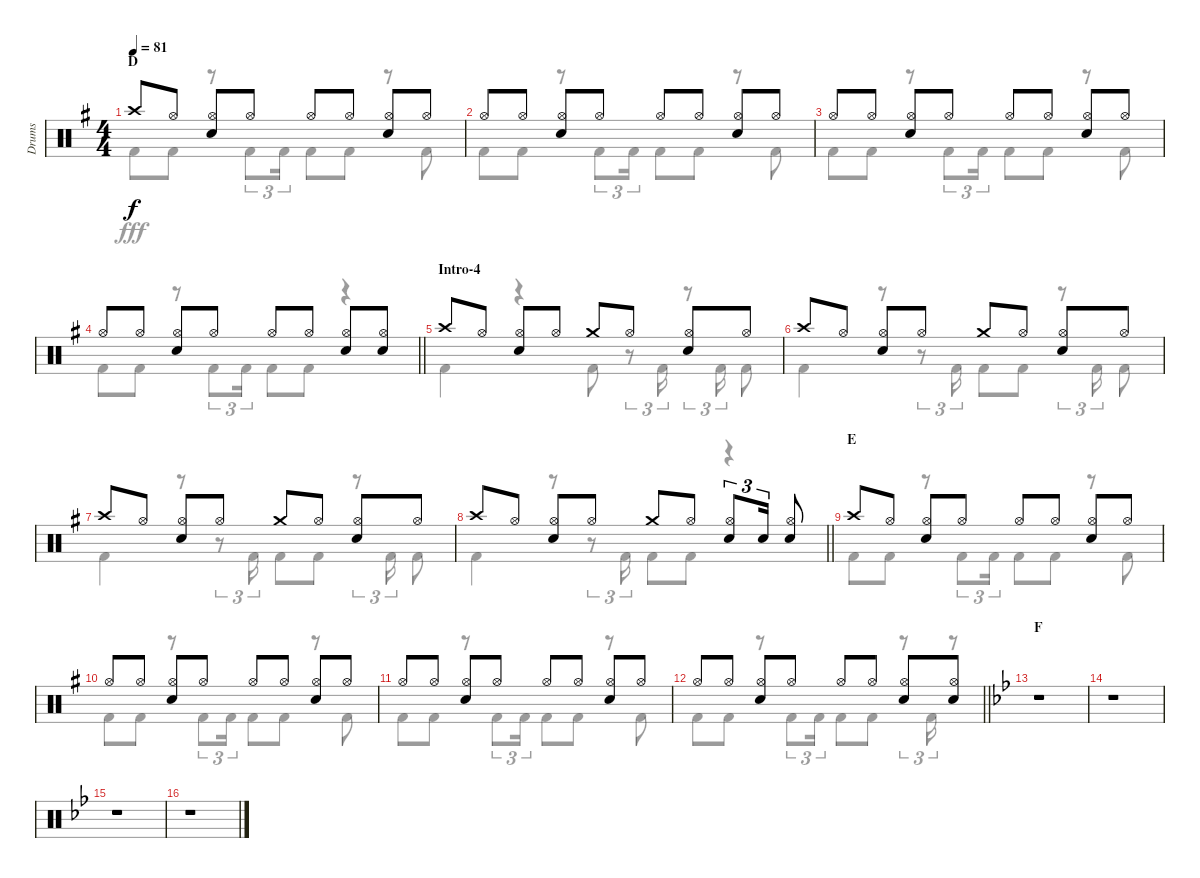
\track ("Drums" "Drums") {instrument percussion}
\staff {score}
\articulation defaults
\voice
\ts (4 4)
\section ("" "D")
\tempo 81
\clef neutral
\ks g "Crash high (hit)".8{dy f} "Hi-Hat (open)".8
("Hi-Hat (open)" "Snare (hit) 2").8 "Hi-Hat (open)".8 "Hi-Hat (open)".8 "Hi-Hat (open)".8 ("Hi-Hat (open)" "Snare (hit) 2").8 "Hi-Hat (open)".8 |
"Hi-Hat (open)".8 "Hi-Hat (open)".8 ("Hi-Hat (open)" "Snare (hit) 2").8 "Hi-Hat (open)".8 "Hi-Hat (open)".8 "Hi-Hat (open)".8 ("Hi-Hat (open)" "Snare (hit) 2").8 "Hi-Hat (open)".8 |
"Hi-Hat (open)".8 "Hi-Hat (open)".8 ("Hi-Hat (open)" "Snare (hit) 2").8 "Hi-Hat (open)".8 "Hi-Hat (open)".8 "Hi-Hat (open)".8 ("Hi-Hat (open)" "Snare (hit) 2").8 "Hi-Hat (open)".8 |
\barLineRight lightlight "Hi-Hat (open)".8 "Hi-Hat (open)".8
("Hi-Hat (open)" "Snare (hit) 2").8 "Hi-Hat (open)".8 "Hi-Hat (open)".8 "Hi-Hat (open)".8 ("Hi-Hat (open)" "Snare (hit) 2").8 ("Hi-Hat (open)" "Snare (hit) 2").8 |
\section ("" "Intro-4")
"Crash high (hit)".8 "Hi-Hat (open)".8 ("Hi-Hat (open)" "Snare (hit) 2").8 "Hi-Hat (open)".8 "Crash medium (hit)".8 "Hi-Hat (open)".8 ("Hi-Hat (open)" "Snare (hit) 2").8 "Hi-Hat (open)".8 |
"Crash high (hit)".8 "Hi-Hat (open)".8 ("Hi-Hat (open)" "Snare (hit) 2").8 "Hi-Hat (open)".8 "Crash medium (hit)".8 "Hi-Hat (open)".8 ("Hi-Hat (open)" "Snare (hit) 2").8 "Hi-Hat (open)".8 |
"Crash high (hit)".8 "Hi-Hat (open)".8 ("Hi-Hat (open)" "Snare (hit) 2").8 "Hi-Hat (open)".8 "Crash medium (hit)".8 "Hi-Hat (open)".8 ("Hi-Hat (open)" "Snare (hit) 2").8 "Hi-Hat (open)".8 |
\barLineRight lightlight "Crash high (hit)".8 "Hi-Hat (open)".8
("Hi-Hat (open)" "Snare (hit) 2").8 "Hi-Hat (open)".8 "Crash medium (hit)".8 "Hi-Hat (open)".8 ("Hi-Hat (open)" "Snare (hit) 2").8{tu (3 2)} "Snare (hit) 2".16{tu (3 2)} ("Hi-Hat (open)" "Snare (hit) 2").8 |
\section ("" "E")
"Crash high (hit)".8 "Hi-Hat (open)".8 ("Hi-Hat (open)" "Snare (hit) 2").8 "Hi-Hat (open)".8 "Hi-Hat (open)".8 "Hi-Hat (open)".8 ("Hi-Hat (open)" "Snare (hit) 2").8 "Hi-Hat (open)".8 |
"Hi-Hat (open)".8 "Hi-Hat (open)".8 ("Hi-Hat (open)" "Snare (hit) 2").8 "Hi-Hat (open)".8 "Hi-Hat (open)".8 "Hi-Hat (open)".8 ("Hi-Hat (open)" "Snare (hit) 2").8 "Hi-Hat (open)".8 |
"Hi-Hat (open)".8 "Hi-Hat (open)".8 ("Hi-Hat (open)" "Snare (hit) 2").8 "Hi-Hat (open)".8 "Hi-Hat (open)".8 "Hi-Hat (open)".8 ("Hi-Hat (open)" "Snare (hit) 2").8 "Hi-Hat (open)".8 |
\barLineRight lightlight "Hi-Hat (open)".8 "Hi-Hat (open)".8
("Hi-Hat (open)" "Snare (hit) 2").8 "Hi-Hat (open)".8 "Hi-Hat (open)".8 "Hi-Hat (open)".8 ("Hi-Hat (open)" "Snare (hit) 2").8 ("Hi-Hat (open)" "Snare (hit) 2").8 |
\section ("" "F")
\ks bb
r.1 |
r.1 |
r.1 |
r.1
\voice
\clef neutral
\ottava regular
\simile none
\ks g "Kick (hit) 2".8{dy fff} "Kick (hit) 2".8
r.8 "Kick (hit) 2".8{tu (3 2)} "Kick (hit) 2".16{tu (3 2)} "Kick (hit) 2".8 "Kick (hit) 2".8 r.8 "Kick (hit) 2".8 |
"Kick (hit) 2".8 "Kick (hit) 2".8 r.8 "Kick (hit) 2".8{tu (3 2)} "Kick (hit) 2".16{tu (3 2)} "Kick (hit) 2".8 "Kick (hit) 2".8 r.8 "Kick (hit) 2".8 |
"Kick (hit) 2".8 "Kick (hit) 2".8 r.8 "Kick (hit) 2".8{tu (3 2)} "Kick (hit) 2".16{tu (3 2)} "Kick (hit) 2".8 "Kick (hit) 2".8 r.8 "Kick (hit) 2".8 |
\barLineRight lightlight "Kick (hit) 2".8 "Kick (hit) 2".8
r.8 "Kick (hit) 2".8{tu (3 2)} "Kick (hit) 2".16{tu (3 2)} "Kick (hit) 2".8 "Kick (hit) 2".8 r.4 |
"Kick (hit) 2".4 r.4 "Kick (hit) 2".8 r.8{tu (3 2)} "Kick (hit) 2".16{tu (3 2)} r.8{tu (3 2)} "Kick (hit) 2".16{tu (3 2)} "Kick (hit) 2".8 |
"Kick (hit) 2".4 r.8 r.8{tu (3 2)} "Kick (hit) 2".16{tu (3 2)} "Kick (hit) 2".8 "Kick (hit) 2".8 r.8{tu (3 2)} "Kick (hit) 2".16{tu (3 2)} "Kick (hit) 2".8 |
"Kick (hit) 2".4 r.8 r.8{tu (3 2)} "Kick (hit) 2".16{tu (3 2)} "Kick (hit) 2".8 "Kick (hit) 2".8 r.8{tu (3 2)} "Kick (hit) 2".16{tu (3 2)} "Kick (hit) 2".8 |
\barLineRight lightlight "Kick (hit) 2".4
r.8 r.8{tu (3 2)} "Kick (hit) 2".16{tu (3 2)} "Kick (hit) 2".8 "Kick (hit) 2".8 r.4 |
"Kick (hit) 2".8 "Kick (hit) 2".8 r.8 "Kick (hit) 2".8{tu (3 2)} "Kick (hit) 2".16{tu (3 2)} "Kick (hit) 2".8 "Kick (hit) 2".8 r.8 "Kick (hit) 2".8 |
"Kick (hit) 2".8 "Kick (hit) 2".8 r.8 "Kick (hit) 2".8{tu (3 2)} "Kick (hit) 2".16{tu (3 2)} "Kick (hit) 2".8 "Kick (hit) 2".8 r.8 "Kick (hit) 2".8 |
"Kick (hit) 2".8 "Kick (hit) 2".8 r.8 "Kick (hit) 2".8{tu (3 2)} "Kick (hit) 2".16{tu (3 2)} "Kick (hit) 2".8 "Kick (hit) 2".8 r.8 "Kick (hit) 2".8 |
\barLineRight lightlight "Kick (hit) 2".8 "Kick (hit) 2".8
r.8 "Kick (hit) 2".8{tu (3 2)} "Kick (hit) 2".16{tu (3 2)} "Kick (hit) 2".8 "Kick (hit) 2".8 r.8{tu (3 2)} "Kick (hit) 2".16{tu (3 2)} r.8 |
\ks bb
r.1 |
r.1 |
r.1 |
r.1
